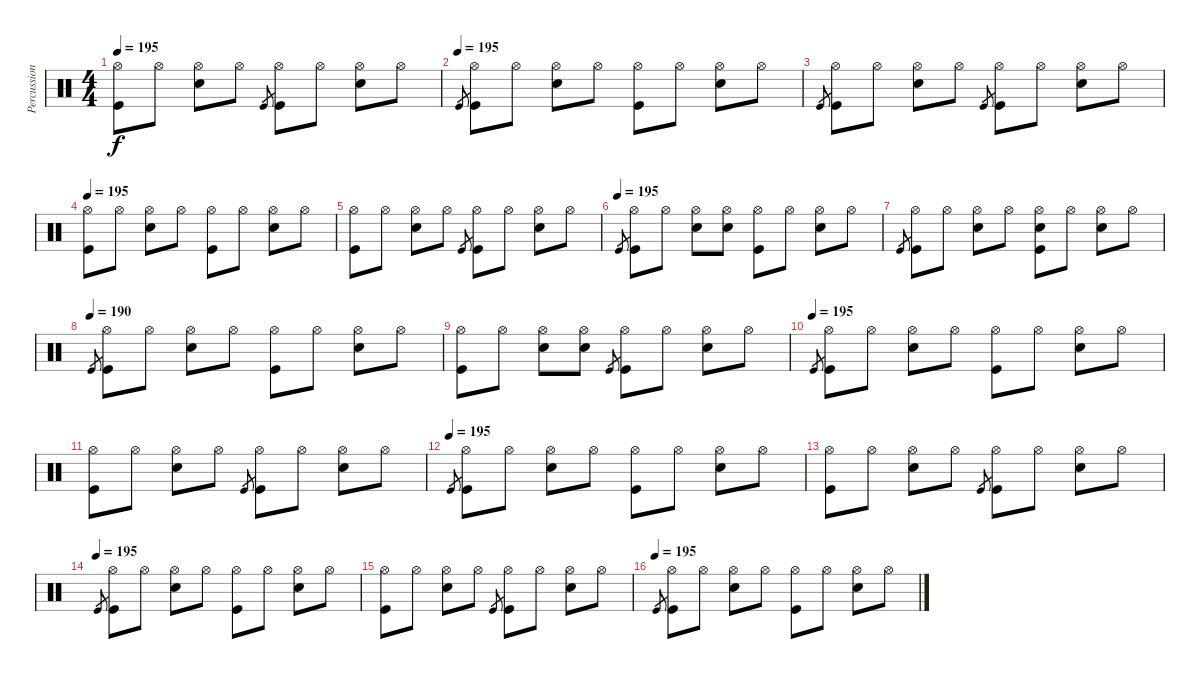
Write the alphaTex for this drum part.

\track ("Percussion" "Percussion") {instrument percussion}
\staff {score}
\articulation defaults
\ts (4 4)
\tempo 195
\clef neutral
\ks c
("Hi-Hat (open)" "Kick (hit)").8{dy f} "Hi-Hat (open)".8 ("Hi-Hat (open)" "Electric Snare (hit)").8 "Hi-Hat (open)".8 "Kick (hit)".8{gr} ("Hi-Hat (open)" "Kick (hit)").8 "Hi-Hat (open)".8 ("Hi-Hat (open)" "Electric Snare (hit)").8 "Hi-Hat (open)".8 |
\tempo (195)
"Kick (hit)".8{gr} ("Hi-Hat (open)" "Kick (hit)").8 "Hi-Hat (open)".8 ("Hi-Hat (open)" "Electric Snare (hit)").8 "Hi-Hat (open)".8 ("Hi-Hat (open)" "Kick (hit)").8 "Hi-Hat (open)".8 ("Hi-Hat (open)" "Electric Snare (hit)").8 "Hi-Hat (open)".8 |
"Kick (hit)".8{gr} ("Hi-Hat (open)" "Kick (hit)").8 "Hi-Hat (open)".8 ("Hi-Hat (open)" "Electric Snare (hit)").8 "Hi-Hat (open)".8 "Kick (hit)".8{gr} ("Hi-Hat (open)" "Kick (hit)").8 "Hi-Hat (open)".8 ("Hi-Hat (open)" "Electric Snare (hit)").8 "Hi-Hat (open)".8 |
\tempo 195
("Hi-Hat (open)" "Kick (hit)").8 "Hi-Hat (open)".8 ("Hi-Hat (open)" "Electric Snare (hit)").8 "Hi-Hat (open)".8 ("Hi-Hat (open)" "Kick (hit)").8 "Hi-Hat (open)".8 ("Hi-Hat (open)" "Electric Snare (hit)").8 "Hi-Hat (open)".8 |
("Hi-Hat (open)" "Kick (hit)").8 "Hi-Hat (open)".8 ("Hi-Hat (open)" "Electric Snare (hit)").8 "Hi-Hat (open)".8 "Kick (hit)".8{gr} ("Hi-Hat (open)" "Kick (hit)").8 "Hi-Hat (open)".8 ("Hi-Hat (open)" "Electric Snare (hit)").8 "Hi-Hat (open)".8 |
\tempo (195)
"Kick (hit)".8{gr} ("Hi-Hat (open)" "Kick (hit)").8 "Hi-Hat (open)".8 ("Hi-Hat (open)" "Electric Snare (hit)").8 ("Hi-Hat (open)" "Electric Snare (hit)").8 ("Hi-Hat (open)" "Kick (hit)").8 "Hi-Hat (open)".8 ("Hi-Hat (open)" "Electric Snare (hit)").8 "Hi-Hat (open)".8 |
"Kick (hit)".8{gr} ("Hi-Hat (open)" "Kick (hit)").8 "Hi-Hat (open)".8 ("Hi-Hat (open)" "Electric Snare (hit)").8 "Hi-Hat (open)".8 ("Hi-Hat (open)" "Electric Snare (hit)" "Kick (hit)").8 "Hi-Hat (open)".8 ("Hi-Hat (open)" "Electric Snare (hit)").8 "Hi-Hat (open)".8 |
\tempo 195
\tempo (190)
"Kick (hit)".8{gr} ("Hi-Hat (open)" "Kick (hit)").8 "Hi-Hat (open)".8 ("Hi-Hat (open)" "Electric Snare (hit)").8 "Hi-Hat (open)".8 ("Hi-Hat (open)" "Kick (hit)").8 "Hi-Hat (open)".8 ("Hi-Hat (open)" "Electric Snare (hit)").8 "Hi-Hat (open)".8 |
("Hi-Hat (open)" "Kick (hit)").8 "Hi-Hat (open)".8 ("Hi-Hat (open)" "Electric Snare (hit)").8 ("Hi-Hat (open)" "Electric Snare (hit)").8 "Kick (hit)".8{gr} ("Hi-Hat (open)" "Kick (hit)").8 "Hi-Hat (open)".8 ("Hi-Hat (open)" "Electric Snare (hit)").8 "Hi-Hat (open)".8 |
\tempo (195)
"Kick (hit)".8{gr} ("Hi-Hat (open)" "Kick (hit)").8 "Hi-Hat (open)".8 ("Hi-Hat (open)" "Electric Snare (hit)").8 "Hi-Hat (open)".8 ("Hi-Hat (open)" "Kick (hit)").8 "Hi-Hat (open)".8 ("Hi-Hat (open)" "Electric Snare (hit)").8 "Hi-Hat (open)".8 |
("Hi-Hat (open)" "Kick (hit)").8 "Hi-Hat (open)".8 ("Hi-Hat (open)" "Electric Snare (hit)").8 "Hi-Hat (open)".8 "Kick (hit)".8{gr} ("Hi-Hat (open)" "Kick (hit)").8 "Hi-Hat (open)".8 ("Hi-Hat (open)" "Electric Snare (hit)").8 "Hi-Hat (open)".8 |
\tempo (195)
"Kick (hit)".8{gr} ("Hi-Hat (open)" "Kick (hit)").8 "Hi-Hat (open)".8 ("Hi-Hat (open)" "Electric Snare (hit)").8 "Hi-Hat (open)".8 ("Hi-Hat (open)" "Kick (hit)").8 "Hi-Hat (open)".8 ("Hi-Hat (open)" "Electric Snare (hit)").8 "Hi-Hat (open)".8 |
("Hi-Hat (open)" "Kick (hit)").8 "Hi-Hat (open)".8 ("Hi-Hat (open)" "Electric Snare (hit)").8 "Hi-Hat (open)".8 "Kick (hit)".8{gr} ("Hi-Hat (open)" "Kick (hit)").8 "Hi-Hat (open)".8 ("Hi-Hat (open)" "Electric Snare (hit)").8 "Hi-Hat (open)".8 |
\tempo (195)
"Kick (hit)".8{gr} ("Hi-Hat (open)" "Kick (hit)").8 "Hi-Hat (open)".8 ("Hi-Hat (open)" "Electric Snare (hit)").8 "Hi-Hat (open)".8 ("Hi-Hat (open)" "Kick (hit)").8 "Hi-Hat (open)".8 ("Hi-Hat (open)" "Electric Snare (hit)").8 "Hi-Hat (open)".8 |
("Hi-Hat (open)" "Kick (hit)").8 "Hi-Hat (open)".8 ("Hi-Hat (open)" "Electric Snare (hit)").8 "Hi-Hat (open)".8 "Kick (hit)".8{gr} ("Hi-Hat (open)" "Kick (hit)").8 "Hi-Hat (open)".8 ("Hi-Hat (open)" "Electric Snare (hit)").8 "Hi-Hat (open)".8 |
\tempo (195)
"Kick (hit)".8{gr} ("Hi-Hat (open)" "Kick (hit)").8 "Hi-Hat (open)".8 ("Hi-Hat (open)" "Electric Snare (hit)").8 "Hi-Hat (open)".8 ("Hi-Hat (open)" "Kick (hit)").8 "Hi-Hat (open)".8 ("Hi-Hat (open)" "Electric Snare (hit)").8 "Hi-Hat (open)".8
